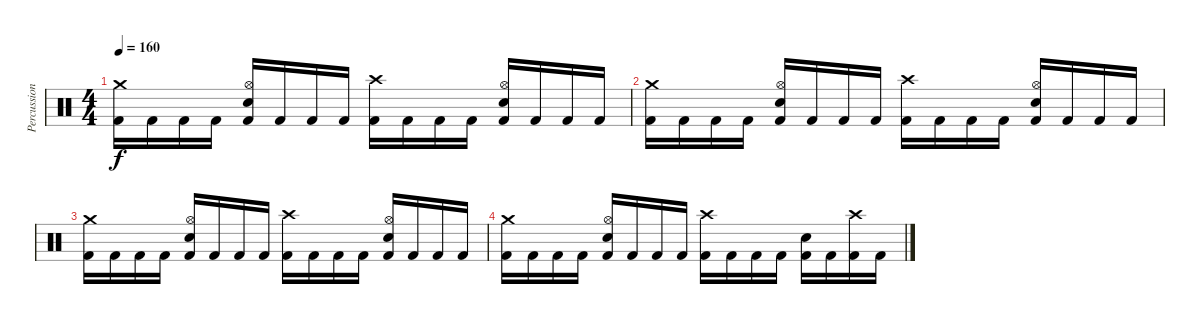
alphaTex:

\track ("Percussions" "Percussion") {instrument percussion}
\staff {score}
\articulation defaults
\ts (4 4)
\tempo 160
\clef neutral
\ks c
("Crash medium (hit)" "Kick (hit) 2").16{dy f} "Kick (hit) 2".16 "Kick (hit) 2".16 "Kick (hit) 2".16 ("Hi-Hat (open)" "Electric Snare (hit)" "Kick (hit) 2").16 "Kick (hit) 2".16 "Kick (hit) 2".16 "Kick (hit) 2".16 ("Crash high (hit)" "Kick (hit) 2").16 "Kick (hit) 2".16 "Kick (hit) 2".16 "Kick (hit) 2".16 ("Hi-Hat (open)" "Electric Snare (hit)" "Kick (hit) 2").16 "Kick (hit) 2".16 "Kick (hit) 2".16 "Kick (hit) 2".16 |
("Crash medium (hit)" "Kick (hit) 2").16 "Kick (hit) 2".16 "Kick (hit) 2".16 "Kick (hit) 2".16 ("Hi-Hat (open)" "Electric Snare (hit)" "Kick (hit) 2").16 "Kick (hit) 2".16 "Kick (hit) 2".16 "Kick (hit) 2".16 ("Crash high (hit)" "Kick (hit) 2").16 "Kick (hit) 2".16 "Kick (hit) 2".16 "Kick (hit) 2".16 ("Hi-Hat (open)" "Electric Snare (hit)" "Kick (hit) 2").16 "Kick (hit) 2".16 "Kick (hit) 2".16 "Kick (hit) 2".16 |
("Crash medium (hit)" "Kick (hit) 2").16 "Kick (hit) 2".16 "Kick (hit) 2".16 "Kick (hit) 2".16 ("Hi-Hat (open)" "Electric Snare (hit)" "Kick (hit) 2").16 "Kick (hit) 2".16 "Kick (hit) 2".16 "Kick (hit) 2".16 ("Crash high (hit)" "Kick (hit) 2").16 "Kick (hit) 2".16 "Kick (hit) 2".16 "Kick (hit) 2".16 ("Hi-Hat (open)" "Electric Snare (hit)" "Kick (hit) 2").16 "Kick (hit) 2".16 "Kick (hit) 2".16 "Kick (hit) 2".16 |
("Crash medium (hit)" "Kick (hit) 2").16 "Kick (hit) 2".16 "Kick (hit) 2".16 "Kick (hit) 2".16 ("Hi-Hat (open)" "Electric Snare (hit)" "Kick (hit) 2").16 "Kick (hit) 2".16 "Kick (hit) 2".16 "Kick (hit) 2".16 ("Crash high (hit)" "Kick (hit) 2").16 "Kick (hit) 2".16 "Kick (hit) 2".16 "Kick (hit) 2".16 ("Electric Snare (hit)" "Kick (hit) 2").16 "Kick (hit) 2".16 ("Crash high (hit)" "Kick (hit) 2").16 "Kick (hit) 2".16
